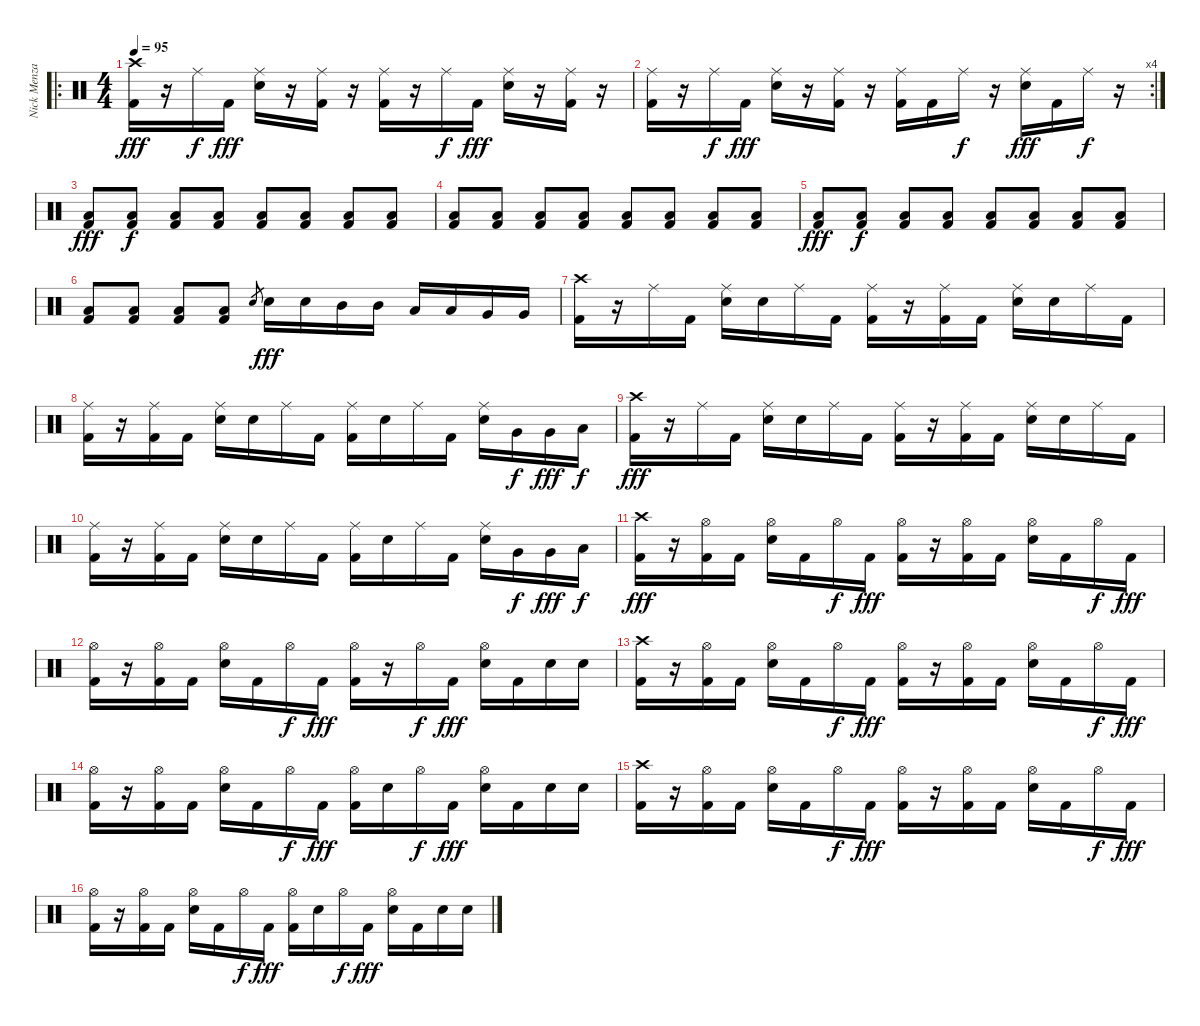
\track ("Nick Menza" "Nick Menza") {instrument percussion}
\staff {score}
\articulation defaults
\ro
\ts (4 4)
\tempo 95
\clef neutral
\ks c
("Kick (hit) 2" "Crash high (hit)").16{dy fff} r.16 "Ride (middle)".16{dy f} "Kick (hit) 2".16{dy fff} ("Electric Snare (hit)" "Ride (middle)").16 r.16 ("Kick (hit) 2" "Ride (middle)").16 r.16 ("Kick (hit) 2" "Ride (middle)").16 r.16 "Ride (middle)".16{dy f} "Kick (hit) 2".16{dy fff} ("Electric Snare (hit)" "Ride (middle)").16 r.16 ("Kick (hit) 2" "Ride (middle)").16 r.16 |
\rc 4
("Kick (hit) 2" "Ride (middle)").16 r.16 "Ride (middle)".16{dy f} "Kick (hit) 2".16{dy fff} ("Electric Snare (hit)" "Ride (middle)").16 r.16 ("Kick (hit) 2" "Ride (middle)").16 r.16 ("Kick (hit) 2" "Ride (middle)").16 "Kick (hit) 2".16 "Ride (middle)".16{dy f} r.16 ("Electric Snare (hit)" "Ride (middle)").16{dy fff} "Kick (hit) 2".16 "Ride (middle)".16{dy f} r.16 |
("Kick (hit) 2" "Low Floor Tom (hit)").8{dy fff} ("Kick (hit) 2" "Low Floor Tom (hit)").8{dy f} ("Kick (hit) 2" "Low Floor Tom (hit)").8 ("Kick (hit) 2" "Low Floor Tom (hit)").8 ("Kick (hit) 2" "Low Floor Tom (hit)").8 ("Kick (hit) 2" "Low Floor Tom (hit)").8 ("Kick (hit) 2" "Low Floor Tom (hit)").8 ("Kick (hit) 2" "Low Floor Tom (hit)").8 |
("Kick (hit) 2" "Low Floor Tom (hit)").8 ("Kick (hit) 2" "Low Floor Tom (hit)").8 ("Kick (hit) 2" "Low Floor Tom (hit)").8 ("Kick (hit) 2" "Low Floor Tom (hit)").8 ("Kick (hit) 2" "Low Floor Tom (hit)").8 ("Kick (hit) 2" "Low Floor Tom (hit)").8 ("Kick (hit) 2" "Low Floor Tom (hit)").8 ("Kick (hit) 2" "Low Floor Tom (hit)").8 |
("Kick (hit) 2" "Low Floor Tom (hit)").8{dy fff} ("Kick (hit) 2" "Low Floor Tom (hit)").8{dy f} ("Kick (hit) 2" "Low Floor Tom (hit)").8 ("Kick (hit) 2" "Low Floor Tom (hit)").8 ("Kick (hit) 2" "Low Floor Tom (hit)").8 ("Kick (hit) 2" "Low Floor Tom (hit)").8 ("Kick (hit) 2" "Low Floor Tom (hit)").8 ("Kick (hit) 2" "Low Floor Tom (hit)").8 |
("Kick (hit) 2" "Low Floor Tom (hit)").8 ("Kick (hit) 2" "Low Floor Tom (hit)").8 ("Kick (hit) 2" "Low Floor Tom (hit)").8 ("Kick (hit) 2" "Low Floor Tom (hit)").8 "Electric Snare (hit)".8{gr} "Electric Snare (hit)".16{dy fff} "Electric Snare (hit)".16 "Mid Tom (hit)".16 "Mid Tom (hit)".16 "Low Tom (hit)".16 "Low Tom (hit)".16 "Very Low Tom (hit)".16 "Very Low Tom (hit)".16 |
("Kick (hit) 2" "Crash high (hit)").16 r.16 "Ride (middle)".16 "Kick (hit) 2".16 ("Electric Snare (hit)" "Ride (middle)").16 "Electric Snare (hit)".16 "Ride (middle)".16 "Kick (hit) 2".16 ("Kick (hit) 2" "Ride (middle)").16 r.16 ("Kick (hit) 2" "Ride (middle)").16 "Kick (hit) 2".16 ("Electric Snare (hit)" "Ride (middle)").16 "Electric Snare (hit)".16 "Ride (middle)".16 "Kick (hit) 2".16 |
("Kick (hit) 2" "Ride (middle)").16 r.16 ("Kick (hit) 2" "Ride (middle)").16 "Kick (hit) 2".16 ("Electric Snare (hit)" "Ride (middle)").16 "Electric Snare (hit)".16 "Ride (middle)".16 "Kick (hit) 2".16 ("Kick (hit) 2" "Ride (middle)").16 "Electric Snare (hit)".16 "Ride (middle)".16 "Kick (hit) 2".16 ("Electric Snare (hit)" "Ride (middle)").16 "Very Low Tom (hit)".16{dy f} "Very Low Tom (hit)".16{dy fff} "Low Floor Tom (hit)".16{dy f} |
("Kick (hit) 2" "Crash high (hit)").16{dy fff} r.16 "Ride (middle)".16 "Kick (hit) 2".16 ("Electric Snare (hit)" "Ride (middle)").16 "Electric Snare (hit)".16 "Ride (middle)".16 "Kick (hit) 2".16 ("Kick (hit) 2" "Ride (middle)").16 r.16 ("Kick (hit) 2" "Ride (middle)").16 "Kick (hit) 2".16 ("Electric Snare (hit)" "Ride (middle)").16 "Electric Snare (hit)".16 "Ride (middle)".16 "Kick (hit) 2".16 |
("Kick (hit) 2" "Ride (middle)").16 r.16 ("Kick (hit) 2" "Ride (middle)").16 "Kick (hit) 2".16 ("Electric Snare (hit)" "Ride (middle)").16 "Electric Snare (hit)".16 "Ride (middle)".16 "Kick (hit) 2".16 ("Kick (hit) 2" "Ride (middle)").16 "Electric Snare (hit)".16 "Ride (middle)".16 "Kick (hit) 2".16 ("Electric Snare (hit)" "Ride (middle)").16 "Very Low Tom (hit)".16{dy f} "Very Low Tom (hit)".16{dy fff} "Low Floor Tom (hit)".16{dy f} |
("Kick (hit) 2" "Crash high (hit)").16{dy fff} r.16 ("Kick (hit) 2" "Hi-Hat (open)").16 "Kick (hit) 2".16 ("Electric Snare (hit)" "Hi-Hat (open)").16 "Kick (hit) 2".16 "Hi-Hat (open)".16{dy f} "Kick (hit) 2".16{dy fff} ("Kick (hit) 2" "Hi-Hat (open)").16 r.16 ("Kick (hit) 2" "Hi-Hat (open)").16 "Kick (hit) 2".16 ("Electric Snare (hit)" "Hi-Hat (open)").16 "Kick (hit) 2".16 "Hi-Hat (open)".16{dy f} "Kick (hit) 2".16{dy fff} |
("Kick (hit) 2" "Hi-Hat (open)").16 r.16 ("Kick (hit) 2" "Hi-Hat (open)").16 "Kick (hit) 2".16 ("Electric Snare (hit)" "Hi-Hat (open)").16 "Kick (hit) 2".16 "Hi-Hat (open)".16{dy f} "Kick (hit) 2".16{dy fff} ("Kick (hit) 2" "Hi-Hat (open)").16 r.16 "Hi-Hat (open)".16{dy f} "Kick (hit) 2".16{dy fff} ("Electric Snare (hit)" "Hi-Hat (open)").16 "Kick (hit) 2".16 "Electric Snare (hit)".16 "Electric Snare (hit)".16 |
("Kick (hit) 2" "Crash high (hit)").16 r.16 ("Kick (hit) 2" "Hi-Hat (open)").16 "Kick (hit) 2".16 ("Electric Snare (hit)" "Hi-Hat (open)").16 "Kick (hit) 2".16 "Hi-Hat (open)".16{dy f} "Kick (hit) 2".16{dy fff} ("Kick (hit) 2" "Hi-Hat (open)").16 r.16 ("Kick (hit) 2" "Hi-Hat (open)").16 "Kick (hit) 2".16 ("Electric Snare (hit)" "Hi-Hat (open)").16 "Kick (hit) 2".16 "Hi-Hat (open)".16{dy f} "Kick (hit) 2".16{dy fff} |
("Kick (hit) 2" "Hi-Hat (open)").16 r.16 ("Kick (hit) 2" "Hi-Hat (open)").16 "Kick (hit) 2".16 ("Electric Snare (hit)" "Hi-Hat (open)").16 "Kick (hit) 2".16 "Hi-Hat (open)".16{dy f} "Kick (hit) 2".16{dy fff} ("Kick (hit) 2" "Hi-Hat (open)").16 "Electric Snare (hit)".16 "Hi-Hat (open)".16{dy f} "Kick (hit) 2".16{dy fff} ("Electric Snare (hit)" "Hi-Hat (open)").16 "Kick (hit) 2".16 "Electric Snare (hit)".16 "Electric Snare (hit)".16 |
("Kick (hit) 2" "Crash high (hit)").16 r.16 ("Kick (hit) 2" "Hi-Hat (open)").16 "Kick (hit) 2".16 ("Electric Snare (hit)" "Hi-Hat (open)").16 "Kick (hit) 2".16 "Hi-Hat (open)".16{dy f} "Kick (hit) 2".16{dy fff} ("Kick (hit) 2" "Hi-Hat (open)").16 r.16 ("Kick (hit) 2" "Hi-Hat (open)").16 "Kick (hit) 2".16 ("Electric Snare (hit)" "Hi-Hat (open)").16 "Kick (hit) 2".16 "Hi-Hat (open)".16{dy f} "Kick (hit) 2".16{dy fff} |
("Kick (hit) 2" "Hi-Hat (open)").16 r.16 ("Kick (hit) 2" "Hi-Hat (open)").16 "Kick (hit) 2".16 ("Electric Snare (hit)" "Hi-Hat (open)").16 "Kick (hit) 2".16 "Hi-Hat (open)".16{dy f} "Kick (hit) 2".16{dy fff} ("Kick (hit) 2" "Hi-Hat (open)").16 "Electric Snare (hit)".16 "Hi-Hat (open)".16{dy f} "Kick (hit) 2".16{dy fff} ("Electric Snare (hit)" "Hi-Hat (open)").16 "Kick (hit) 2".16 "Electric Snare (hit)".16 "Electric Snare (hit)".16
